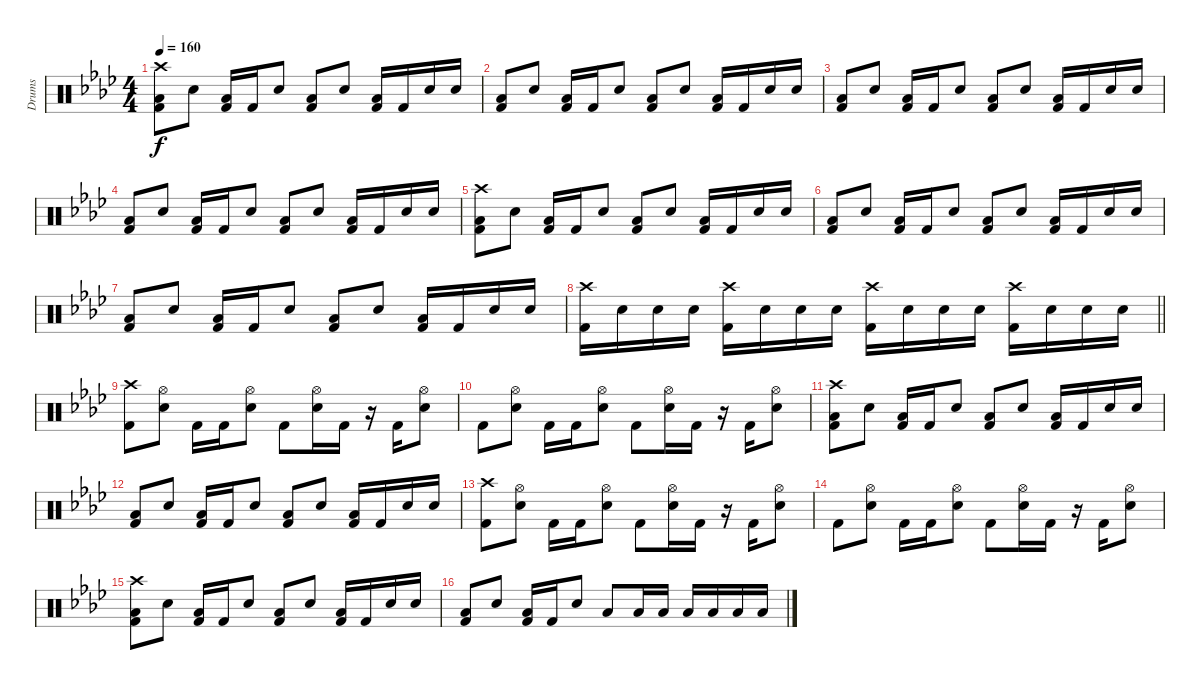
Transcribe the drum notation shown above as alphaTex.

\track ("Drums" "Drums") {instrument percussion}
\staff {score}
\articulation defaults
\ts (4 4)
\tempo 160
\clef neutral
\ks ab
("Crash high (hit)" "Low Floor Tom (hit)" "Kick (hit) 2").8{dy f} "Electric Snare (hit)".8 ("Low Floor Tom (hit)" "Kick (hit) 2").16 "Kick (hit) 2".16 "Electric Snare (hit)".8 ("Low Floor Tom (hit)" "Kick (hit) 2").8 "Electric Snare (hit)".8 ("Low Floor Tom (hit)" "Kick (hit) 2").16 "Kick (hit) 2".16 "Electric Snare (hit)".16 "Electric Snare (hit)".16 |
("Low Floor Tom (hit)" "Kick (hit) 2").8 "Electric Snare (hit)".8 ("Low Floor Tom (hit)" "Kick (hit) 2").16 "Kick (hit) 2".16 "Electric Snare (hit)".8 ("Low Floor Tom (hit)" "Kick (hit) 2").8 "Electric Snare (hit)".8 ("Low Floor Tom (hit)" "Kick (hit) 2").16 "Kick (hit) 2".16 "Electric Snare (hit)".16 "Electric Snare (hit)".16 |
("Low Floor Tom (hit)" "Kick (hit) 2").8 "Electric Snare (hit)".8 ("Low Floor Tom (hit)" "Kick (hit) 2").16 "Kick (hit) 2".16 "Electric Snare (hit)".8 ("Low Floor Tom (hit)" "Kick (hit) 2").8 "Electric Snare (hit)".8 ("Low Floor Tom (hit)" "Kick (hit) 2").16 "Kick (hit) 2".16 "Electric Snare (hit)".16 "Electric Snare (hit)".16 |
("Low Floor Tom (hit)" "Kick (hit) 2").8 "Electric Snare (hit)".8 ("Low Floor Tom (hit)" "Kick (hit) 2").16 "Kick (hit) 2".16 "Electric Snare (hit)".8 ("Low Floor Tom (hit)" "Kick (hit) 2").8 "Electric Snare (hit)".8 ("Low Floor Tom (hit)" "Kick (hit) 2").16 "Kick (hit) 2".16 "Electric Snare (hit)".16 "Electric Snare (hit)".16 |
("Crash high (hit)" "Low Floor Tom (hit)" "Kick (hit) 2").8 "Electric Snare (hit)".8 ("Low Floor Tom (hit)" "Kick (hit) 2").16 "Kick (hit) 2".16 "Electric Snare (hit)".8 ("Low Floor Tom (hit)" "Kick (hit) 2").8 "Electric Snare (hit)".8 ("Low Floor Tom (hit)" "Kick (hit) 2").16 "Kick (hit) 2".16 "Electric Snare (hit)".16 "Electric Snare (hit)".16 |
("Low Floor Tom (hit)" "Kick (hit) 2").8 "Electric Snare (hit)".8 ("Low Floor Tom (hit)" "Kick (hit) 2").16 "Kick (hit) 2".16 "Electric Snare (hit)".8 ("Low Floor Tom (hit)" "Kick (hit) 2").8 "Electric Snare (hit)".8 ("Low Floor Tom (hit)" "Kick (hit) 2").16 "Kick (hit) 2".16 "Electric Snare (hit)".16 "Electric Snare (hit)".16 |
("Low Floor Tom (hit)" "Kick (hit) 2").8 "Electric Snare (hit)".8 ("Low Floor Tom (hit)" "Kick (hit) 2").16 "Kick (hit) 2".16 "Electric Snare (hit)".8 ("Low Floor Tom (hit)" "Kick (hit) 2").8 "Electric Snare (hit)".8 ("Low Floor Tom (hit)" "Kick (hit) 2").16 "Kick (hit) 2".16 "Electric Snare (hit)".16 "Electric Snare (hit)".16 |
\barLineRight lightlight
("Crash high (hit)" "Kick (hit) 2").16 "Electric Snare (hit)".16 "Electric Snare (hit)".16 "Electric Snare (hit)".16 ("Crash high (hit)" "Kick (hit) 2").16 "Electric Snare (hit)".16 "Electric Snare (hit)".16 "Electric Snare (hit)".16 ("Crash high (hit)" "Kick (hit) 2").16 "Electric Snare (hit)".16 "Electric Snare (hit)".16 "Electric Snare (hit)".16 ("Crash high (hit)" "Kick (hit) 2").16 "Electric Snare (hit)".16 "Electric Snare (hit)".16 "Electric Snare (hit)".16 |
("Crash high (hit)" "Kick (hit) 2").8 ("Hi-Hat (open)" "Electric Snare (hit)").8 "Kick (hit) 2".16 "Kick (hit) 2".16 ("Hi-Hat (open)" "Electric Snare (hit)").8 "Kick (hit) 2".8 ("Hi-Hat (open)" "Electric Snare (hit)").16 "Kick (hit) 2".16 r.16 "Kick (hit) 2".16 ("Hi-Hat (open)" "Electric Snare (hit)").8 |
"Kick (hit) 2".8 ("Hi-Hat (open)" "Electric Snare (hit)").8 "Kick (hit) 2".16 "Kick (hit) 2".16 ("Hi-Hat (open)" "Electric Snare (hit)").8 "Kick (hit) 2".8 ("Hi-Hat (open)" "Electric Snare (hit)").16 "Kick (hit) 2".16 r.16 "Kick (hit) 2".16 ("Hi-Hat (open)" "Electric Snare (hit)").8 |
("Crash high (hit)" "Low Floor Tom (hit)" "Kick (hit) 2").8 "Electric Snare (hit)".8 ("Low Floor Tom (hit)" "Kick (hit) 2").16 "Kick (hit) 2".16 "Electric Snare (hit)".8 ("Low Floor Tom (hit)" "Kick (hit) 2").8 "Electric Snare (hit)".8 ("Low Floor Tom (hit)" "Kick (hit) 2").16 "Kick (hit) 2".16 "Electric Snare (hit)".16 "Electric Snare (hit)".16 |
("Low Floor Tom (hit)" "Kick (hit) 2").8 "Electric Snare (hit)".8 ("Low Floor Tom (hit)" "Kick (hit) 2").16 "Kick (hit) 2".16 "Electric Snare (hit)".8 ("Low Floor Tom (hit)" "Kick (hit) 2").8 "Electric Snare (hit)".8 ("Low Floor Tom (hit)" "Kick (hit) 2").16 "Kick (hit) 2".16 "Electric Snare (hit)".16 "Electric Snare (hit)".16 |
("Crash high (hit)" "Kick (hit) 2").8 ("Hi-Hat (open)" "Electric Snare (hit)").8 "Kick (hit) 2".16 "Kick (hit) 2".16 ("Hi-Hat (open)" "Electric Snare (hit)").8 "Kick (hit) 2".8 ("Hi-Hat (open)" "Electric Snare (hit)").16 "Kick (hit) 2".16 r.16 "Kick (hit) 2".16 ("Hi-Hat (open)" "Electric Snare (hit)").8 |
"Kick (hit) 2".8 ("Hi-Hat (open)" "Electric Snare (hit)").8 "Kick (hit) 2".16 "Kick (hit) 2".16 ("Hi-Hat (open)" "Electric Snare (hit)").8 "Kick (hit) 2".8 ("Hi-Hat (open)" "Electric Snare (hit)").16 "Kick (hit) 2".16 r.16 "Kick (hit) 2".16 ("Hi-Hat (open)" "Electric Snare (hit)").8 |
("Crash high (hit)" "Low Floor Tom (hit)" "Kick (hit) 2").8 "Electric Snare (hit)".8 ("Low Floor Tom (hit)" "Kick (hit) 2").16 "Kick (hit) 2".16 "Electric Snare (hit)".8 ("Low Floor Tom (hit)" "Kick (hit) 2").8 "Electric Snare (hit)".8 ("Low Floor Tom (hit)" "Kick (hit) 2").16 "Kick (hit) 2".16 "Electric Snare (hit)".16 "Electric Snare (hit)".16 |
("Low Floor Tom (hit)" "Kick (hit) 2").8 "Electric Snare (hit)".8 ("Low Floor Tom (hit)" "Kick (hit) 2").16 "Kick (hit) 2".16 "Electric Snare (hit)".8 "Low Floor Tom (hit)".8 "Low Floor Tom (hit)".16 "Low Floor Tom (hit)".16 "Low Floor Tom (hit)".16 "Low Floor Tom (hit)".16 "Low Floor Tom (hit)".16 "Low Floor Tom (hit)".16
